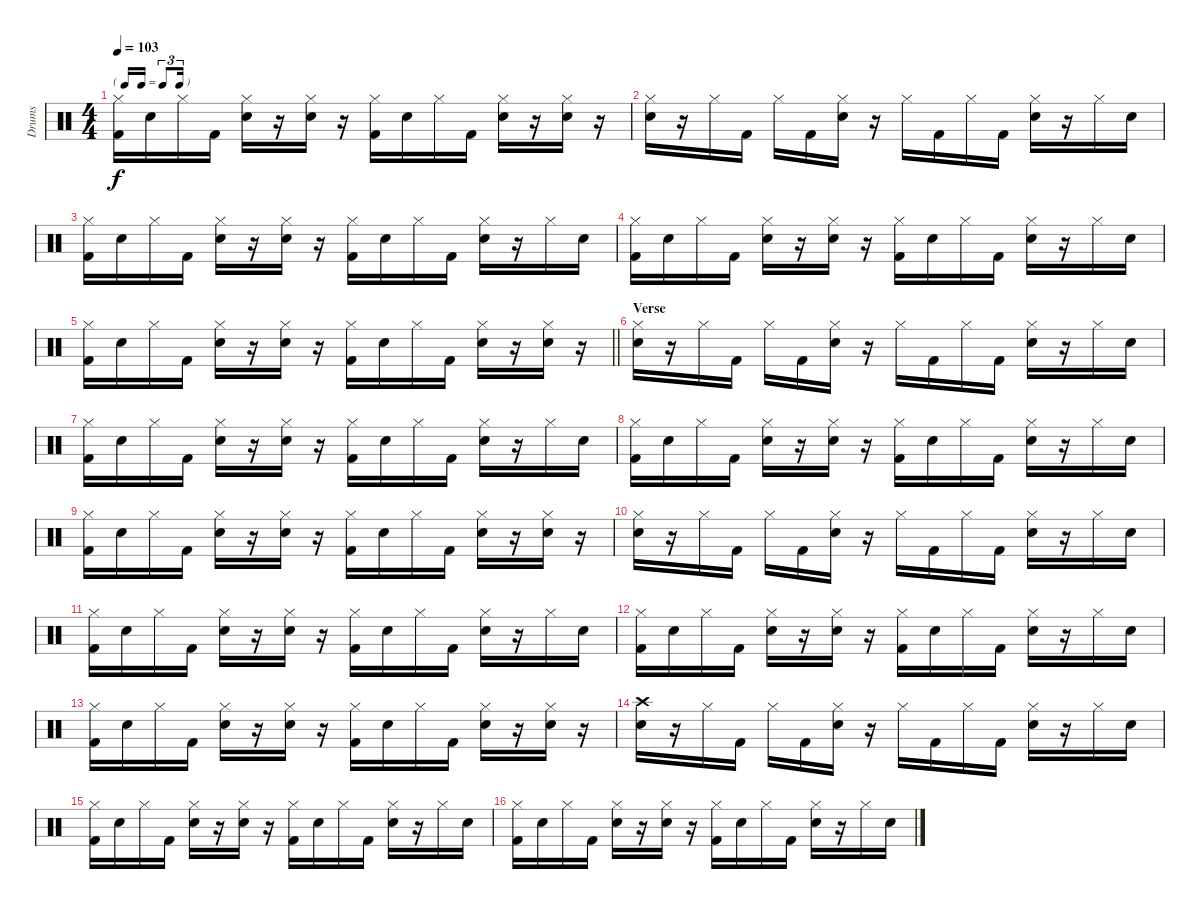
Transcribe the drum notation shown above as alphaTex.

\track ("Drums" "Drums") {instrument percussion}
\staff {score}
\articulation defaults
\ts (4 4)
\tf triplet16th
\tempo 103
\clef neutral
\ks c
("Hi-Hat (closed)" "Kick (hit) 2").16{dy f} "Electric Snare (hit)".16 "Hi-Hat (closed)".16 "Kick (hit) 2".16 ("Hi-Hat (closed)" "Electric Snare (hit)").16 r.16 ("Hi-Hat (closed)" "Electric Snare (hit)").16 r.16 ("Hi-Hat (closed)" "Kick (hit) 2").16 "Electric Snare (hit)".16 "Hi-Hat (closed)".16 "Kick (hit) 2".16 ("Hi-Hat (closed)" "Electric Snare (hit)").16 r.16 ("Hi-Hat (closed)" "Electric Snare (hit)").16 r.16 |
("Hi-Hat (closed)" "Electric Snare (hit)").16 r.16 "Hi-Hat (closed)".16 "Kick (hit) 2".16 "Hi-Hat (closed)".16 "Kick (hit) 2".16 ("Hi-Hat (closed)" "Electric Snare (hit)").16 r.16 "Hi-Hat (closed)".16 "Kick (hit) 2".16 "Hi-Hat (closed)".16 "Kick (hit) 2".16 ("Hi-Hat (closed)" "Electric Snare (hit)").16 r.16 "Hi-Hat (closed)".16 "Electric Snare (hit)".16 |
("Hi-Hat (closed)" "Kick (hit) 2").16 "Electric Snare (hit)".16 "Hi-Hat (closed)".16 "Kick (hit) 2".16 ("Hi-Hat (closed)" "Electric Snare (hit)").16 r.16 ("Hi-Hat (closed)" "Electric Snare (hit)").16 r.16 ("Hi-Hat (closed)" "Kick (hit) 2").16 "Electric Snare (hit)".16 "Hi-Hat (closed)".16 "Kick (hit) 2".16 ("Hi-Hat (closed)" "Electric Snare (hit)").16 r.16 "Hi-Hat (closed)".16 "Electric Snare (hit)".16 |
("Hi-Hat (closed)" "Kick (hit) 2").16 "Electric Snare (hit)".16 "Hi-Hat (closed)".16 "Kick (hit) 2".16 ("Hi-Hat (closed)" "Electric Snare (hit)").16 r.16 ("Hi-Hat (closed)" "Electric Snare (hit)").16 r.16 ("Hi-Hat (closed)" "Kick (hit) 2").16 "Electric Snare (hit)".16 "Hi-Hat (closed)".16 "Kick (hit) 2".16 ("Hi-Hat (closed)" "Electric Snare (hit)").16 r.16 "Hi-Hat (closed)".16 "Electric Snare (hit)".16 |
\barLineRight lightlight
("Hi-Hat (closed)" "Kick (hit) 2").16 "Electric Snare (hit)".16 "Hi-Hat (closed)".16 "Kick (hit) 2".16 ("Hi-Hat (closed)" "Electric Snare (hit)").16 r.16 ("Hi-Hat (closed)" "Electric Snare (hit)").16 r.16 ("Hi-Hat (closed)" "Kick (hit) 2").16 "Electric Snare (hit)".16 "Hi-Hat (closed)".16 "Kick (hit) 2".16 ("Hi-Hat (closed)" "Electric Snare (hit)").16 r.16 ("Hi-Hat (closed)" "Electric Snare (hit)").16 r.16 |
\section ("" "Verse")
("Hi-Hat (closed)" "Electric Snare (hit)").16 r.16 "Hi-Hat (closed)".16 "Kick (hit) 2".16 "Hi-Hat (closed)".16 "Kick (hit) 2".16 ("Hi-Hat (closed)" "Electric Snare (hit)").16 r.16 "Hi-Hat (closed)".16 "Kick (hit) 2".16 "Hi-Hat (closed)".16 "Kick (hit) 2".16 ("Hi-Hat (closed)" "Electric Snare (hit)").16 r.16 "Hi-Hat (closed)".16 "Electric Snare (hit)".16 |
("Hi-Hat (closed)" "Kick (hit) 2").16 "Electric Snare (hit)".16 "Hi-Hat (closed)".16 "Kick (hit) 2".16 ("Hi-Hat (closed)" "Electric Snare (hit)").16 r.16 ("Hi-Hat (closed)" "Electric Snare (hit)").16 r.16 ("Hi-Hat (closed)" "Kick (hit) 2").16 "Electric Snare (hit)".16 "Hi-Hat (closed)".16 "Kick (hit) 2".16 ("Hi-Hat (closed)" "Electric Snare (hit)").16 r.16 "Hi-Hat (closed)".16 "Electric Snare (hit)".16 |
("Hi-Hat (closed)" "Kick (hit) 2").16 "Electric Snare (hit)".16 "Hi-Hat (closed)".16 "Kick (hit) 2".16 ("Hi-Hat (closed)" "Electric Snare (hit)").16 r.16 ("Hi-Hat (closed)" "Electric Snare (hit)").16 r.16 ("Hi-Hat (closed)" "Kick (hit) 2").16 "Electric Snare (hit)".16 "Hi-Hat (closed)".16 "Kick (hit) 2".16 ("Hi-Hat (closed)" "Electric Snare (hit)").16 r.16 "Hi-Hat (closed)".16 "Electric Snare (hit)".16 |
("Hi-Hat (closed)" "Kick (hit) 2").16 "Electric Snare (hit)".16 "Hi-Hat (closed)".16 "Kick (hit) 2".16 ("Hi-Hat (closed)" "Electric Snare (hit)").16 r.16 ("Hi-Hat (closed)" "Electric Snare (hit)").16 r.16 ("Hi-Hat (closed)" "Kick (hit) 2").16 "Electric Snare (hit)".16 "Hi-Hat (closed)".16 "Kick (hit) 2".16 ("Hi-Hat (closed)" "Electric Snare (hit)").16 r.16 ("Hi-Hat (closed)" "Electric Snare (hit)").16 r.16 |
("Hi-Hat (closed)" "Electric Snare (hit)").16 r.16 "Hi-Hat (closed)".16 "Kick (hit) 2".16 "Hi-Hat (closed)".16 "Kick (hit) 2".16 ("Hi-Hat (closed)" "Electric Snare (hit)").16 r.16 "Hi-Hat (closed)".16 "Kick (hit) 2".16 "Hi-Hat (closed)".16 "Kick (hit) 2".16 ("Hi-Hat (closed)" "Electric Snare (hit)").16 r.16 "Hi-Hat (closed)".16 "Electric Snare (hit)".16 |
("Hi-Hat (closed)" "Kick (hit) 2").16 "Electric Snare (hit)".16 "Hi-Hat (closed)".16 "Kick (hit) 2".16 ("Hi-Hat (closed)" "Electric Snare (hit)").16 r.16 ("Hi-Hat (closed)" "Electric Snare (hit)").16 r.16 ("Hi-Hat (closed)" "Kick (hit) 2").16 "Electric Snare (hit)".16 "Hi-Hat (closed)".16 "Kick (hit) 2".16 ("Hi-Hat (closed)" "Electric Snare (hit)").16 r.16 "Hi-Hat (closed)".16 "Electric Snare (hit)".16 |
("Hi-Hat (closed)" "Kick (hit) 2").16 "Electric Snare (hit)".16 "Hi-Hat (closed)".16 "Kick (hit) 2".16 ("Hi-Hat (closed)" "Electric Snare (hit)").16 r.16 ("Hi-Hat (closed)" "Electric Snare (hit)").16 r.16 ("Hi-Hat (closed)" "Kick (hit) 2").16 "Electric Snare (hit)".16 "Hi-Hat (closed)".16 "Kick (hit) 2".16 ("Hi-Hat (closed)" "Electric Snare (hit)").16 r.16 "Hi-Hat (closed)".16 "Electric Snare (hit)".16 |
("Hi-Hat (closed)" "Kick (hit) 2").16 "Electric Snare (hit)".16 "Hi-Hat (closed)".16 "Kick (hit) 2".16 ("Hi-Hat (closed)" "Electric Snare (hit)").16 r.16 ("Hi-Hat (closed)" "Electric Snare (hit)").16 r.16 ("Hi-Hat (closed)" "Kick (hit) 2").16 "Electric Snare (hit)".16 "Hi-Hat (closed)".16 "Kick (hit) 2".16 ("Hi-Hat (closed)" "Electric Snare (hit)").16 r.16 ("Hi-Hat (closed)" "Electric Snare (hit)").16 r.16 |
("Crash high (hit)" "Electric Snare (hit)").16 r.16 "Hi-Hat (closed)".16 "Kick (hit) 2".16 "Hi-Hat (closed)".16 "Kick (hit) 2".16 ("Hi-Hat (closed)" "Electric Snare (hit)").16 r.16 "Hi-Hat (closed)".16 "Kick (hit) 2".16 "Hi-Hat (closed)".16 "Kick (hit) 2".16 ("Hi-Hat (closed)" "Electric Snare (hit)").16 r.16 "Hi-Hat (closed)".16 "Electric Snare (hit)".16 |
("Hi-Hat (closed)" "Kick (hit) 2").16 "Electric Snare (hit)".16 "Hi-Hat (closed)".16 "Kick (hit) 2".16 ("Hi-Hat (closed)" "Electric Snare (hit)").16 r.16 ("Hi-Hat (closed)" "Electric Snare (hit)").16 r.16 ("Hi-Hat (closed)" "Kick (hit) 2").16 "Electric Snare (hit)".16 "Hi-Hat (closed)".16 "Kick (hit) 2".16 ("Hi-Hat (closed)" "Electric Snare (hit)").16 r.16 "Hi-Hat (closed)".16 "Electric Snare (hit)".16 |
("Hi-Hat (closed)" "Kick (hit) 2").16 "Electric Snare (hit)".16 "Hi-Hat (closed)".16 "Kick (hit) 2".16 ("Hi-Hat (closed)" "Electric Snare (hit)").16 r.16 ("Hi-Hat (closed)" "Electric Snare (hit)").16 r.16 ("Hi-Hat (closed)" "Kick (hit) 2").16 "Electric Snare (hit)".16 "Hi-Hat (closed)".16 "Kick (hit) 2".16 ("Hi-Hat (closed)" "Electric Snare (hit)").16 r.16 "Hi-Hat (closed)".16 "Electric Snare (hit)".16
